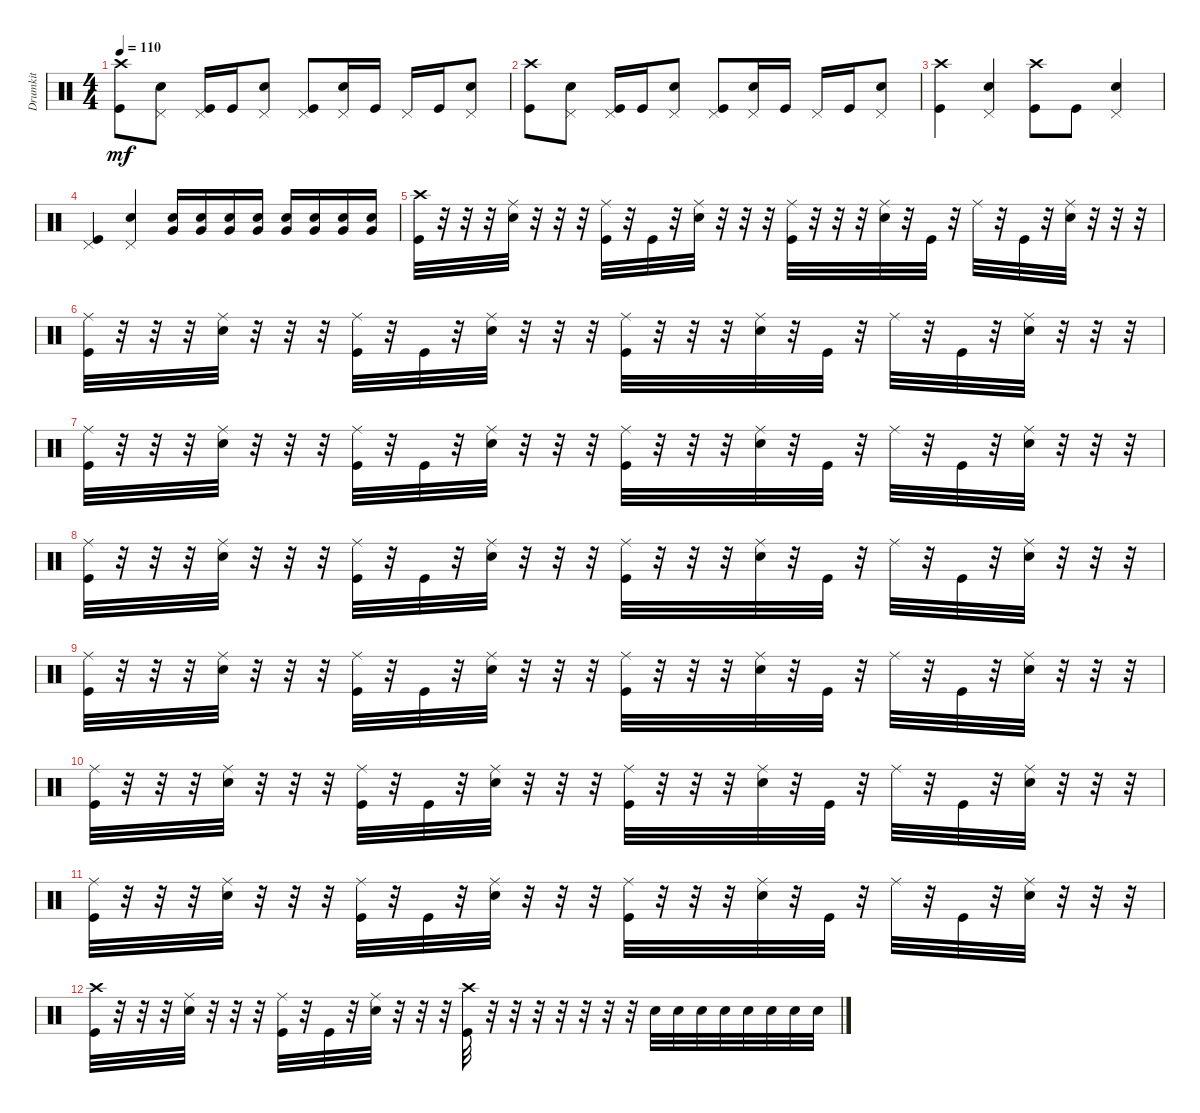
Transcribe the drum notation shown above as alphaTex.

\track ("Drumkit" "Drumkit") {instrument percussion}
\staff {score}
\articulation defaults
\ts (4 4)
\tempo 110
\clef neutral
\ks c
("Kick (hit)" "Crash high (hit)").8{dy mf} ("Snare (hit) 2" "Pedal Hi-Hat (hit)").8 ("Kick (hit)" "Pedal Hi-Hat (hit)").16 "Kick (hit)".16 ("Snare (hit) 2" "Pedal Hi-Hat (hit)").8 ("Kick (hit)" "Pedal Hi-Hat (hit)").8 ("Snare (hit) 2" "Pedal Hi-Hat (hit)").16 "Kick (hit)".16 "Pedal Hi-Hat (hit)".16 "Kick (hit)".16 ("Pedal Hi-Hat (hit)" "Snare (hit) 2").8 |
("Kick (hit)" "Crash high (hit)").8 ("Snare (hit) 2" "Pedal Hi-Hat (hit)").8 ("Kick (hit)" "Pedal Hi-Hat (hit)").16 "Kick (hit)".16 ("Snare (hit) 2" "Pedal Hi-Hat (hit)").8 ("Kick (hit)" "Pedal Hi-Hat (hit)").8 ("Snare (hit) 2" "Pedal Hi-Hat (hit)").16 "Kick (hit)".16 "Pedal Hi-Hat (hit)".16 "Kick (hit)".16 ("Pedal Hi-Hat (hit)" "Snare (hit) 2").8 |
("Kick (hit)" "Crash high (hit)").4 ("Snare (hit) 2" "Pedal Hi-Hat (hit)").4 ("Kick (hit)" "Crash high (hit)").8 "Kick (hit)".8 ("Snare (hit) 2" "Pedal Hi-Hat (hit)").4 |
("Kick (hit)" "Pedal Hi-Hat (hit)").4 ("Snare (hit) 2" "Pedal Hi-Hat (hit)").4 ("Snare (hit) 2" "Very Low Tom (hit)").16 ("Snare (hit) 2" "Very Low Tom (hit)").16 ("Snare (hit) 2" "Very Low Tom (hit)").16 ("Snare (hit) 2" "Very Low Tom (hit)").16 ("Snare (hit) 2" "Very Low Tom (hit)").16 ("Snare (hit) 2" "Very Low Tom (hit)").16 ("Snare (hit) 2" "Very Low Tom (hit)").16 ("Snare (hit) 2" "Very Low Tom (hit)").16 |
("Kick (hit)" "Crash high (hit)").32 r.32 r.32 r.32 ("Snare (hit) 2" "Ride (middle)").32 r.32 r.32 r.32 ("Kick (hit)" "Ride (middle)").32 r.32 "Kick (hit)".32 r.32 ("Snare (hit) 2" "Ride (middle)").32 r.32 r.32 r.32 ("Kick (hit)" "Ride (middle)").32 r.32 r.32 r.32 ("Ride (middle)" "Snare (hit) 2").32 r.32 "Kick (hit)".32 r.32 "Ride (middle)".32 r.32 "Kick (hit)".32 r.32 ("Ride (middle)" "Snare (hit) 2").32 r.32 r.32 r.32 |
("Kick (hit)" "Ride (middle)").32 r.32 r.32 r.32 ("Snare (hit) 2" "Ride (middle)").32 r.32 r.32 r.32 ("Kick (hit)" "Ride (middle)").32 r.32 "Kick (hit)".32 r.32 ("Snare (hit) 2" "Ride (middle)").32 r.32 r.32 r.32 ("Kick (hit)" "Ride (middle)").32 r.32 r.32 r.32 ("Ride (middle)" "Snare (hit) 2").32 r.32 "Kick (hit)".32 r.32 "Ride (middle)".32 r.32 "Kick (hit)".32 r.32 ("Ride (middle)" "Snare (hit) 2").32 r.32 r.32 r.32 |
("Kick (hit)" "Ride (middle)").32 r.32 r.32 r.32 ("Snare (hit) 2" "Ride (middle)").32 r.32 r.32 r.32 ("Kick (hit)" "Ride (middle)").32 r.32 "Kick (hit)".32 r.32 ("Snare (hit) 2" "Ride (middle)").32 r.32 r.32 r.32 ("Kick (hit)" "Ride (middle)").32 r.32 r.32 r.32 ("Ride (middle)" "Snare (hit) 2").32 r.32 "Kick (hit)".32 r.32 "Ride (middle)".32 r.32 "Kick (hit)".32 r.32 ("Ride (middle)" "Snare (hit) 2").32 r.32 r.32 r.32 |
("Kick (hit)" "Ride (middle)").32 r.32 r.32 r.32 ("Snare (hit) 2" "Ride (middle)").32 r.32 r.32 r.32 ("Kick (hit)" "Ride (middle)").32 r.32 "Kick (hit)".32 r.32 ("Snare (hit) 2" "Ride (middle)").32 r.32 r.32 r.32 ("Kick (hit)" "Ride (middle)").32 r.32 r.32 r.32 ("Ride (middle)" "Snare (hit) 2").32 r.32 "Kick (hit)".32 r.32 "Ride (middle)".32 r.32 "Kick (hit)".32 r.32 ("Ride (middle)" "Snare (hit) 2").32 r.32 r.32 r.32 |
("Kick (hit)" "Ride (middle)").32 r.32 r.32 r.32 ("Snare (hit) 2" "Ride (middle)").32 r.32 r.32 r.32 ("Kick (hit)" "Ride (middle)").32 r.32 "Kick (hit)".32 r.32 ("Snare (hit) 2" "Ride (middle)").32 r.32 r.32 r.32 ("Kick (hit)" "Ride (middle)").32 r.32 r.32 r.32 ("Ride (middle)" "Snare (hit) 2").32 r.32 "Kick (hit)".32 r.32 "Ride (middle)".32 r.32 "Kick (hit)".32 r.32 ("Ride (middle)" "Snare (hit) 2").32 r.32 r.32 r.32 |
("Kick (hit)" "Ride (middle)").32 r.32 r.32 r.32 ("Snare (hit) 2" "Ride (middle)").32 r.32 r.32 r.32 ("Kick (hit)" "Ride (middle)").32 r.32 "Kick (hit)".32 r.32 ("Snare (hit) 2" "Ride (middle)").32 r.32 r.32 r.32 ("Kick (hit)" "Ride (middle)").32 r.32 r.32 r.32 ("Ride (middle)" "Snare (hit) 2").32 r.32 "Kick (hit)".32 r.32 "Ride (middle)".32 r.32 "Kick (hit)".32 r.32 ("Ride (middle)" "Snare (hit) 2").32 r.32 r.32 r.32 |
("Kick (hit)" "Ride (middle)").32 r.32 r.32 r.32 ("Snare (hit) 2" "Ride (middle)").32 r.32 r.32 r.32 ("Kick (hit)" "Ride (middle)").32 r.32 "Kick (hit)".32 r.32 ("Snare (hit) 2" "Ride (middle)").32 r.32 r.32 r.32 ("Kick (hit)" "Ride (middle)").32 r.32 r.32 r.32 ("Ride (middle)" "Snare (hit) 2").32 r.32 "Kick (hit)".32 r.32 "Ride (middle)".32 r.32 "Kick (hit)".32 r.32 ("Ride (middle)" "Snare (hit) 2").32 r.32 r.32 r.32 |
("Kick (hit)" "Crash high (hit)").32 r.32 r.32 r.32 ("Snare (hit) 2" "Ride (middle)").32 r.32 r.32 r.32 ("Kick (hit)" "Ride (middle)").32 r.32 "Kick (hit)".32 r.32 ("Snare (hit) 2" "Ride (middle)").32 r.32 r.32 r.32 ("Kick (hit)" "Crash high (hit)").32 r.32 r.32 r.32 r.32 r.32 r.32 r.32 "Snare (hit) 2".32 "Snare (hit) 2".32 "Snare (hit) 2".32 "Snare (hit) 2".32 "Snare (hit) 2".32 "Snare (hit) 2".32 "Snare (hit) 2".32 "Snare (hit) 2".32
